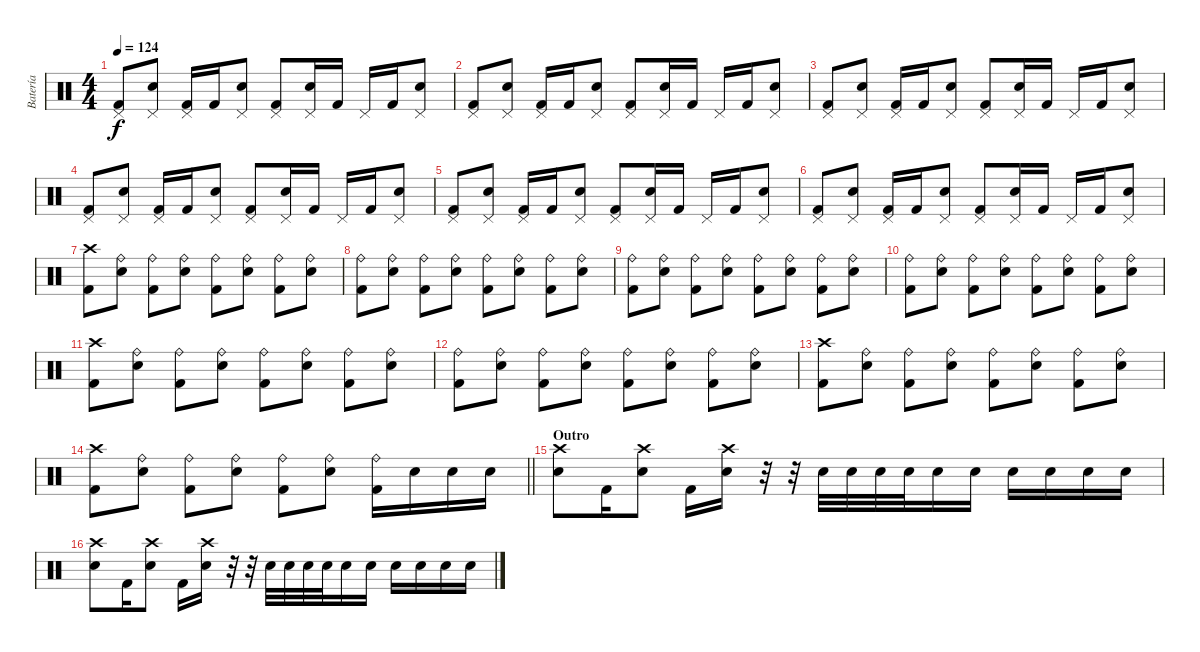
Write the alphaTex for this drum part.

\track ("Batería" "Batería") {instrument percussion}
\staff {score}
\articulation defaults
\ts (4 4)
\tempo 124
\clef neutral
\ks c
("Pedal Hi-Hat (hit)" "Kick (hit) 2").8{dy f} ("Pedal Hi-Hat (hit)" "Snare (hit) 2").8 ("Pedal Hi-Hat (hit)" "Kick (hit) 2").16 "Kick (hit) 2".16 ("Pedal Hi-Hat (hit)" "Snare (hit) 2").8 ("Pedal Hi-Hat (hit)" "Kick (hit) 2").8 ("Pedal Hi-Hat (hit)" "Snare (hit) 2").16 "Kick (hit) 2".16 "Pedal Hi-Hat (hit)".16 "Kick (hit) 2".16 ("Pedal Hi-Hat (hit)" "Snare (hit) 2").8 |
("Pedal Hi-Hat (hit)" "Kick (hit) 2").8 ("Pedal Hi-Hat (hit)" "Snare (hit) 2").8 ("Pedal Hi-Hat (hit)" "Kick (hit) 2").16 "Kick (hit) 2".16 ("Pedal Hi-Hat (hit)" "Snare (hit) 2").8 ("Pedal Hi-Hat (hit)" "Kick (hit) 2").8 ("Pedal Hi-Hat (hit)" "Snare (hit) 2").16 "Kick (hit) 2".16 "Pedal Hi-Hat (hit)".16 "Kick (hit) 2".16 ("Pedal Hi-Hat (hit)" "Snare (hit) 2").8 |
("Pedal Hi-Hat (hit)" "Kick (hit) 2").8 ("Pedal Hi-Hat (hit)" "Snare (hit) 2").8 ("Pedal Hi-Hat (hit)" "Kick (hit) 2").16 "Kick (hit) 2".16 ("Pedal Hi-Hat (hit)" "Snare (hit) 2").8 ("Pedal Hi-Hat (hit)" "Kick (hit) 2").8 ("Pedal Hi-Hat (hit)" "Snare (hit) 2").16 "Kick (hit) 2".16 "Pedal Hi-Hat (hit)".16 "Kick (hit) 2".16 ("Pedal Hi-Hat (hit)" "Snare (hit) 2").8 |
("Pedal Hi-Hat (hit)" "Kick (hit) 2").8 ("Pedal Hi-Hat (hit)" "Snare (hit) 2").8 ("Pedal Hi-Hat (hit)" "Kick (hit) 2").16 "Kick (hit) 2".16 ("Pedal Hi-Hat (hit)" "Snare (hit) 2").8 ("Pedal Hi-Hat (hit)" "Kick (hit) 2").8 ("Pedal Hi-Hat (hit)" "Snare (hit) 2").16 "Kick (hit) 2".16 "Pedal Hi-Hat (hit)".16 "Kick (hit) 2".16 ("Pedal Hi-Hat (hit)" "Snare (hit) 2").8 |
("Pedal Hi-Hat (hit)" "Kick (hit) 2").8 ("Pedal Hi-Hat (hit)" "Snare (hit) 2").8 ("Pedal Hi-Hat (hit)" "Kick (hit) 2").16 "Kick (hit) 2".16 ("Pedal Hi-Hat (hit)" "Snare (hit) 2").8 ("Pedal Hi-Hat (hit)" "Kick (hit) 2").8 ("Pedal Hi-Hat (hit)" "Snare (hit) 2").16 "Kick (hit) 2".16 "Pedal Hi-Hat (hit)".16 "Kick (hit) 2".16 ("Pedal Hi-Hat (hit)" "Snare (hit) 2").8 |
("Pedal Hi-Hat (hit)" "Kick (hit) 2").8 ("Pedal Hi-Hat (hit)" "Snare (hit) 2").8 ("Pedal Hi-Hat (hit)" "Kick (hit) 2").16 "Kick (hit) 2".16 ("Pedal Hi-Hat (hit)" "Snare (hit) 2").8 ("Pedal Hi-Hat (hit)" "Kick (hit) 2").8 ("Pedal Hi-Hat (hit)" "Snare (hit) 2").16 "Kick (hit) 2".16 "Pedal Hi-Hat (hit)".16 "Kick (hit) 2".16 ("Pedal Hi-Hat (hit)" "Snare (hit) 2").8 |
("Crash high (hit)" "Kick (hit) 2").8 ("Ride (bell)" "Snare (hit) 2").8 ("Ride (bell)" "Kick (hit) 2").8 ("Ride (bell)" "Snare (hit) 2").8 ("Ride (bell)" "Kick (hit) 2").8 ("Ride (bell)" "Snare (hit) 2").8 ("Ride (bell)" "Kick (hit) 2").8 ("Ride (bell)" "Snare (hit) 2").8 |
("Ride (bell)" "Kick (hit) 2").8 ("Ride (bell)" "Snare (hit) 2").8 ("Ride (bell)" "Kick (hit) 2").8 ("Ride (bell)" "Snare (hit) 2").8 ("Ride (bell)" "Kick (hit) 2").8 ("Ride (bell)" "Snare (hit) 2").8 ("Ride (bell)" "Kick (hit) 2").8 ("Ride (bell)" "Snare (hit) 2").8 |
("Ride (bell)" "Kick (hit) 2").8 ("Ride (bell)" "Snare (hit) 2").8 ("Ride (bell)" "Kick (hit) 2").8 ("Ride (bell)" "Snare (hit) 2").8 ("Ride (bell)" "Kick (hit) 2").8 ("Ride (bell)" "Snare (hit) 2").8 ("Ride (bell)" "Kick (hit) 2").8 ("Ride (bell)" "Snare (hit) 2").8 |
("Ride (bell)" "Kick (hit) 2").8 ("Ride (bell)" "Snare (hit) 2").8 ("Ride (bell)" "Kick (hit) 2").8 ("Ride (bell)" "Snare (hit) 2").8 ("Ride (bell)" "Kick (hit) 2").8 ("Ride (bell)" "Snare (hit) 2").8 ("Ride (bell)" "Kick (hit) 2").8 ("Ride (bell)" "Snare (hit) 2").8 |
("Crash high (hit)" "Kick (hit) 2").8 ("Ride (bell)" "Snare (hit) 2").8 ("Ride (bell)" "Kick (hit) 2").8 ("Ride (bell)" "Snare (hit) 2").8 ("Ride (bell)" "Kick (hit) 2").8 ("Ride (bell)" "Snare (hit) 2").8 ("Ride (bell)" "Kick (hit) 2").8 ("Ride (bell)" "Snare (hit) 2").8 |
("Ride (bell)" "Kick (hit) 2").8 ("Ride (bell)" "Snare (hit) 2").8 ("Ride (bell)" "Kick (hit) 2").8 ("Ride (bell)" "Snare (hit) 2").8 ("Ride (bell)" "Kick (hit) 2").8 ("Ride (bell)" "Snare (hit) 2").8 ("Ride (bell)" "Kick (hit) 2").8 ("Ride (bell)" "Snare (hit) 2").8 |
("Crash high (hit)" "Kick (hit) 2").8 ("Ride (bell)" "Snare (hit) 2").8 ("Ride (bell)" "Kick (hit) 2").8 ("Ride (bell)" "Snare (hit) 2").8 ("Ride (bell)" "Kick (hit) 2").8 ("Ride (bell)" "Snare (hit) 2").8 ("Ride (bell)" "Kick (hit) 2").8 ("Ride (bell)" "Snare (hit) 2").8 |
\barLineRight lightlight
("Crash high (hit)" "Kick (hit) 2").8 ("Ride (bell)" "Snare (hit) 2").8 ("Ride (bell)" "Kick (hit) 2").8 ("Ride (bell)" "Snare (hit) 2").8 ("Ride (bell)" "Kick (hit) 2").8 ("Ride (bell)" "Snare (hit) 2").8 ("Ride (bell)" "Kick (hit) 2").16 "Snare (hit) 2".16 "Snare (hit) 2".16 "Snare (hit) 2".16 |
\section ("" "Outro")
("Snare (hit) 2" "Crash high (hit)").8 "Kick (hit) 2".16 ("Snare (hit) 2" "Crash high (hit)").8 "Kick (hit) 2".16 ("Snare (hit) 2" "Crash high (hit)").16 r.32 r.32 "Snare (hit) 2".32 "Snare (hit) 2".32 "Snare (hit) 2".32 "Snare (hit) 2".32 "Snare (hit) 2".16 "Snare (hit) 2".16 "Snare (hit) 2".16 "Snare (hit) 2".16 "Snare (hit) 2".16 "Snare (hit) 2".16 |
("Snare (hit) 2" "Crash high (hit)").8 "Kick (hit) 2".16 ("Snare (hit) 2" "Crash high (hit)").8 "Kick (hit) 2".16 ("Snare (hit) 2" "Crash high (hit)").16 r.32 r.32 "Snare (hit) 2".32 "Snare (hit) 2".32 "Snare (hit) 2".32 "Snare (hit) 2".32 "Snare (hit) 2".16 "Snare (hit) 2".16 "Snare (hit) 2".16 "Snare (hit) 2".16 "Snare (hit) 2".16 "Snare (hit) 2".16
